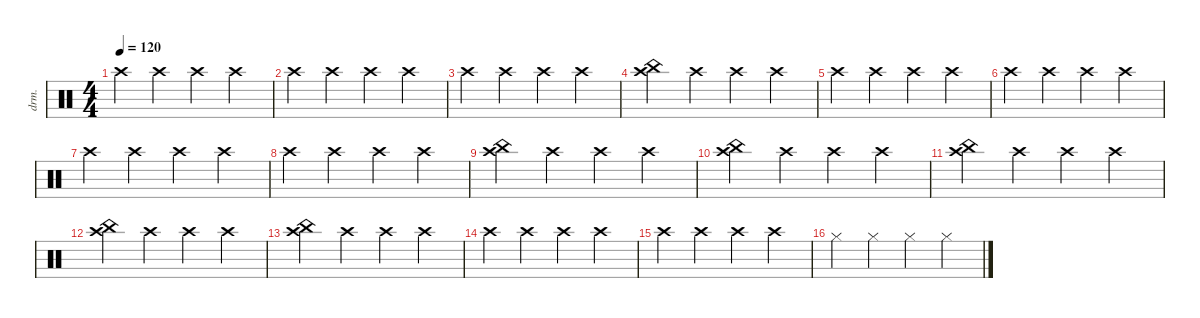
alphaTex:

\defaultSystemsLayout 4
\hideDynamics
\bracketExtendMode nobrackets
\otherSystemsTrackNameOrientation horizontal
\track ("Batterie" "drm.") {instrument percussion}
\staff {score}
\articulation defaults
\ts (4 4)
\tempo 120
\clef neutral
\ks c "Crash high (hit)".4{dy f} "Crash high (hit)".4 "Crash high (hit)".4 "Crash high (hit)".4
|
"Crash high (hit)".4 "Crash high (hit)".4 "Crash high (hit)".4 "Crash high (hit)".4 |
"Crash high (hit)".4 "Crash high (hit)".4 "Crash high (hit)".4 "Crash high (hit)".4 |
("China (hit)" "Crash high (hit)").4 "Crash high (hit)".4 "Crash high (hit)".4 "Crash high (hit)".4 |
"Crash high (hit)".4 "Crash high (hit)".4 "Crash high (hit)".4 "Crash high (hit)".4 |
"Crash high (hit)".4 "Crash high (hit)".4 "Crash high (hit)".4 "Crash high (hit)".4 |
"Crash high (hit)".4 "Crash high (hit)".4 "Crash high (hit)".4 "Crash high (hit)".4 |
"Crash high (hit)".4 "Crash high (hit)".4 "Crash high (hit)".4 "Crash high (hit)".4 |
("China (hit)" "Crash high (hit)").4 "Crash high (hit)".4 "Crash high (hit)".4 "Crash high (hit)".4 |
("China (hit)" "Crash high (hit)").4 "Crash high (hit)".4 "Crash high (hit)".4 "Crash high (hit)".4 |
("China (hit)" "Crash high (hit)").4 "Crash high (hit)".4 "Crash high (hit)".4 "Crash high (hit)".4 |
("China (hit)" "Crash high (hit)").4 "Crash high (hit)".4 "Crash high (hit)".4 "Crash high (hit)".4 |
("China (hit)" "Crash high (hit)").4 "Crash high (hit)".4 "Crash high (hit)".4 "Crash high (hit)".4 |
"Crash high (hit)".4 "Crash high (hit)".4 "Crash high (hit)".4 "Crash high (hit)".4 |
"Crash high (hit)".4 "Crash high (hit)".4 "Crash high (hit)".4 "Crash high (hit)".4 |
"Hi-Hat (closed)".4 "Hi-Hat (closed)".4 "Hi-Hat (closed)".4 "Hi-Hat (closed)".4
